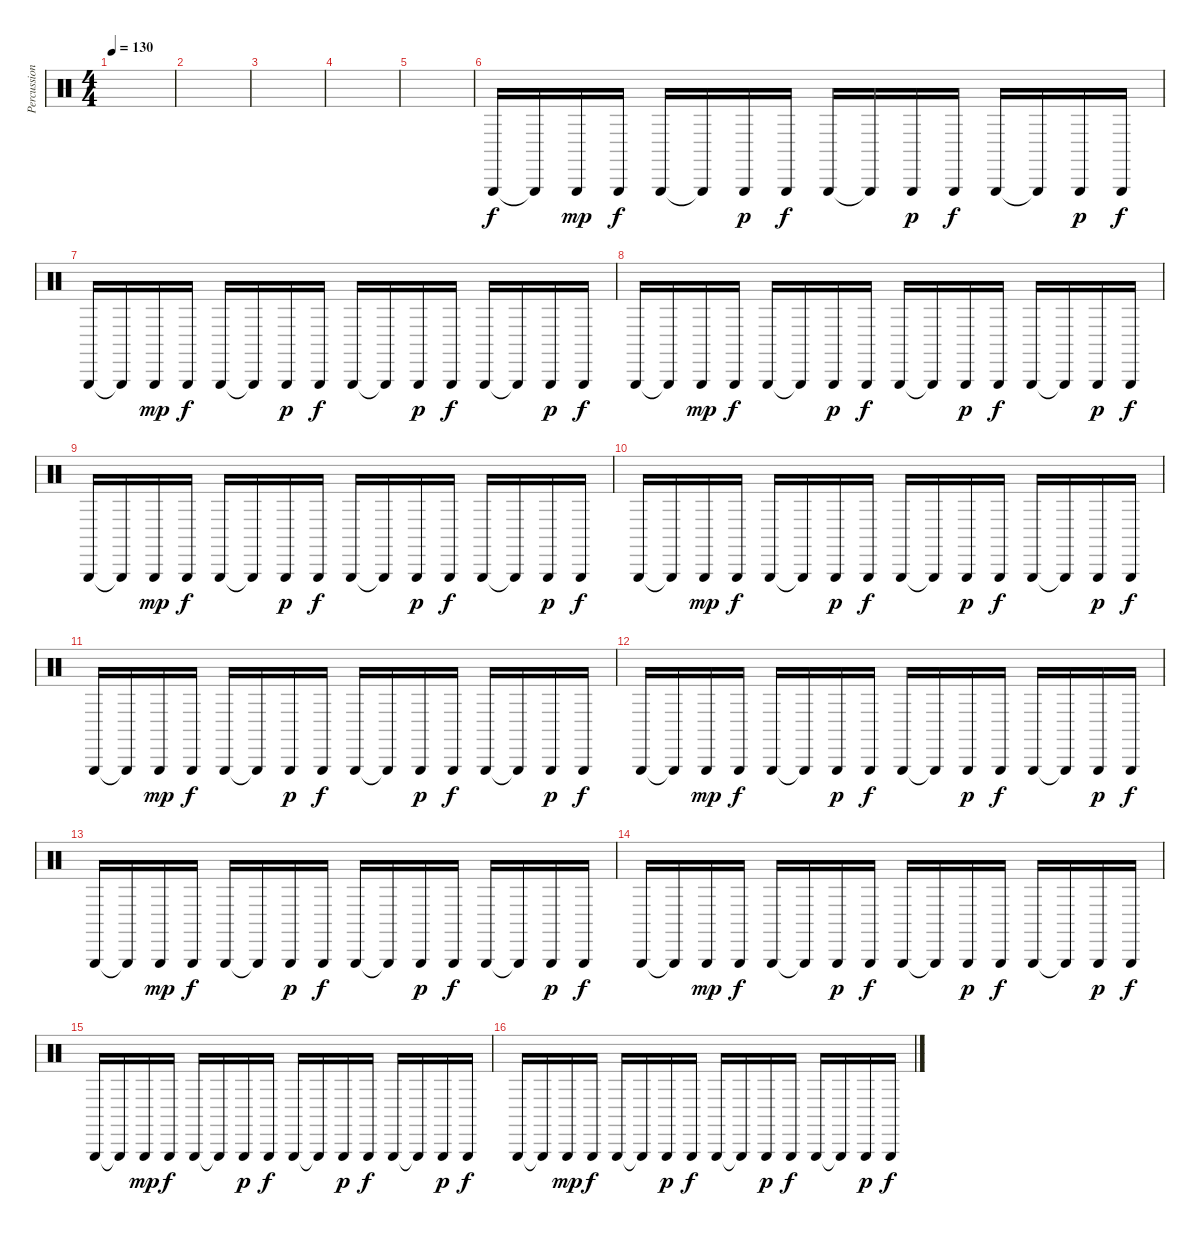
\track ("Percussion" "Percussion") {instrument percussion}
\staff {score}
\articulation defaults
\ts (4 4)
\tempo 130
\clef neutral
\ks c
|
|
|
|
|
"Triangle (hit)".16 "Triangle (hit)"{t}.16 "Triangle (hit)".16{dy mp} "Triangle (hit)".16{dy f} "Triangle (hit)".16 "Triangle (hit)"{t}.16 "Triangle (hit)".16{dy p} "Triangle (hit)".16{dy f} "Triangle (hit)".16 "Triangle (hit)"{t}.16 "Triangle (hit)".16{dy p} "Triangle (hit)".16{dy f} "Triangle (hit)".16 "Triangle (hit)"{t}.16 "Triangle (hit)".16{dy p} "Triangle (hit)".16{dy f} |
"Triangle (hit)".16 "Triangle (hit)"{t}.16 "Triangle (hit)".16{dy mp} "Triangle (hit)".16{dy f} "Triangle (hit)".16 "Triangle (hit)"{t}.16 "Triangle (hit)".16{dy p} "Triangle (hit)".16{dy f} "Triangle (hit)".16 "Triangle (hit)"{t}.16 "Triangle (hit)".16{dy p} "Triangle (hit)".16{dy f} "Triangle (hit)".16 "Triangle (hit)"{t}.16 "Triangle (hit)".16{dy p} "Triangle (hit)".16{dy f} |
"Triangle (hit)".16 "Triangle (hit)"{t}.16 "Triangle (hit)".16{dy mp} "Triangle (hit)".16{dy f} "Triangle (hit)".16 "Triangle (hit)"{t}.16 "Triangle (hit)".16{dy p} "Triangle (hit)".16{dy f} "Triangle (hit)".16 "Triangle (hit)"{t}.16 "Triangle (hit)".16{dy p} "Triangle (hit)".16{dy f} "Triangle (hit)".16 "Triangle (hit)"{t}.16 "Triangle (hit)".16{dy p} "Triangle (hit)".16{dy f} |
"Triangle (hit)".16 "Triangle (hit)"{t}.16 "Triangle (hit)".16{dy mp} "Triangle (hit)".16{dy f} "Triangle (hit)".16 "Triangle (hit)"{t}.16 "Triangle (hit)".16{dy p} "Triangle (hit)".16{dy f} "Triangle (hit)".16 "Triangle (hit)"{t}.16 "Triangle (hit)".16{dy p} "Triangle (hit)".16{dy f} "Triangle (hit)".16 "Triangle (hit)"{t}.16 "Triangle (hit)".16{dy p} "Triangle (hit)".16{dy f} |
"Triangle (hit)".16 "Triangle (hit)"{t}.16 "Triangle (hit)".16{dy mp} "Triangle (hit)".16{dy f} "Triangle (hit)".16 "Triangle (hit)"{t}.16 "Triangle (hit)".16{dy p} "Triangle (hit)".16{dy f} "Triangle (hit)".16 "Triangle (hit)"{t}.16 "Triangle (hit)".16{dy p} "Triangle (hit)".16{dy f} "Triangle (hit)".16 "Triangle (hit)"{t}.16 "Triangle (hit)".16{dy p} "Triangle (hit)".16{dy f} |
"Triangle (hit)".16 "Triangle (hit)"{t}.16 "Triangle (hit)".16{dy mp} "Triangle (hit)".16{dy f} "Triangle (hit)".16 "Triangle (hit)"{t}.16 "Triangle (hit)".16{dy p} "Triangle (hit)".16{dy f} "Triangle (hit)".16 "Triangle (hit)"{t}.16 "Triangle (hit)".16{dy p} "Triangle (hit)".16{dy f} "Triangle (hit)".16 "Triangle (hit)"{t}.16 "Triangle (hit)".16{dy p} "Triangle (hit)".16{dy f} |
"Triangle (hit)".16 "Triangle (hit)"{t}.16 "Triangle (hit)".16{dy mp} "Triangle (hit)".16{dy f} "Triangle (hit)".16 "Triangle (hit)"{t}.16 "Triangle (hit)".16{dy p} "Triangle (hit)".16{dy f} "Triangle (hit)".16 "Triangle (hit)"{t}.16 "Triangle (hit)".16{dy p} "Triangle (hit)".16{dy f} "Triangle (hit)".16 "Triangle (hit)"{t}.16 "Triangle (hit)".16{dy p} "Triangle (hit)".16{dy f} |
"Triangle (hit)".16 "Triangle (hit)"{t}.16 "Triangle (hit)".16{dy mp} "Triangle (hit)".16{dy f} "Triangle (hit)".16 "Triangle (hit)"{t}.16 "Triangle (hit)".16{dy p} "Triangle (hit)".16{dy f} "Triangle (hit)".16 "Triangle (hit)"{t}.16 "Triangle (hit)".16{dy p} "Triangle (hit)".16{dy f} "Triangle (hit)".16 "Triangle (hit)"{t}.16 "Triangle (hit)".16{dy p} "Triangle (hit)".16{dy f} |
"Triangle (hit)".16 "Triangle (hit)"{t}.16 "Triangle (hit)".16{dy mp} "Triangle (hit)".16{dy f} "Triangle (hit)".16 "Triangle (hit)"{t}.16 "Triangle (hit)".16{dy p} "Triangle (hit)".16{dy f} "Triangle (hit)".16 "Triangle (hit)"{t}.16 "Triangle (hit)".16{dy p} "Triangle (hit)".16{dy f} "Triangle (hit)".16 "Triangle (hit)"{t}.16 "Triangle (hit)".16{dy p} "Triangle (hit)".16{dy f} |
"Triangle (hit)".16 "Triangle (hit)"{t}.16 "Triangle (hit)".16{dy mp} "Triangle (hit)".16{dy f} "Triangle (hit)".16 "Triangle (hit)"{t}.16 "Triangle (hit)".16{dy p} "Triangle (hit)".16{dy f} "Triangle (hit)".16 "Triangle (hit)"{t}.16 "Triangle (hit)".16{dy p} "Triangle (hit)".16{dy f} "Triangle (hit)".16 "Triangle (hit)"{t}.16 "Triangle (hit)".16{dy p} "Triangle (hit)".16{dy f} |
"Triangle (hit)".16 "Triangle (hit)"{t}.16 "Triangle (hit)".16{dy mp} "Triangle (hit)".16{dy f} "Triangle (hit)".16 "Triangle (hit)"{t}.16 "Triangle (hit)".16{dy p} "Triangle (hit)".16{dy f} "Triangle (hit)".16 "Triangle (hit)"{t}.16 "Triangle (hit)".16{dy p} "Triangle (hit)".16{dy f} "Triangle (hit)".16 "Triangle (hit)"{t}.16 "Triangle (hit)".16{dy p} "Triangle (hit)".16{dy f}
